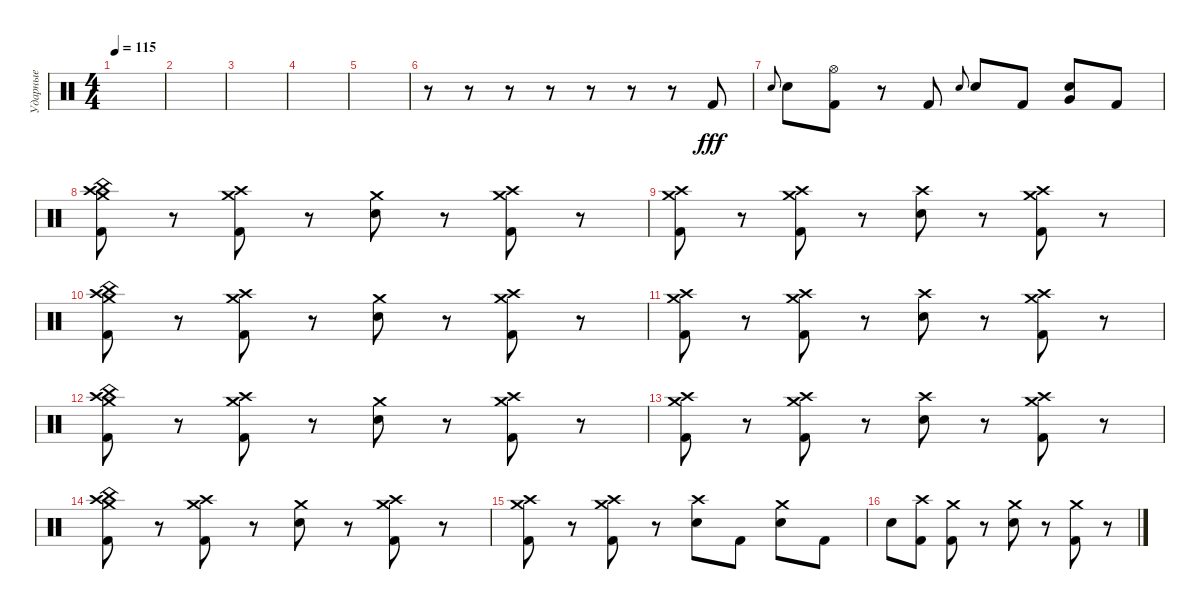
\track ("Ударные" "Ударные") {instrument percussion}
\staff {score}
\articulation defaults
\ts (4 4)
\tempo 115
\clef neutral
\ks c
|
|
|
|
|
r.8 r.8 r.8 r.8 r.8 r.8 r.8 "Kick (hit) 2".8{dy fff} |
"Snare (hit) 2".8{gr onbeat} "Snare (hit) 2".8 ("Hi-Hat (open)" "Kick (hit) 2").8 r.8 "Kick (hit) 2".8 "Snare (hit) 2".8{gr onbeat} "Snare (hit) 2".8 "Kick (hit) 2".8 ("Very Low Tom (hit)" "Snare (hit) 2").8 "Kick (hit) 2".8 |
("Crash high (hit)" "Crash medium (hit)" "China (hit)" "Kick (hit) 2").8 r.8 ("Crash high (hit)" "Crash medium (hit)" "Kick (hit) 2").8 r.8 ("Crash medium (hit)" "Snare (hit) 2").8 r.8 ("Crash high (hit)" "Crash medium (hit)" "Kick (hit) 2").8 r.8 |
("Crash high (hit)" "Crash medium (hit)" "Kick (hit) 2").8 r.8 ("Crash high (hit)" "Crash medium (hit)" "Kick (hit) 2").8 r.8 ("Crash high (hit)" "Snare (hit) 2").8 r.8 ("Crash high (hit)" "Crash medium (hit)" "Kick (hit) 2").8 r.8 |
("Crash high (hit)" "Crash medium (hit)" "China (hit)" "Kick (hit) 2").8 r.8 ("Crash high (hit)" "Crash medium (hit)" "Kick (hit) 2").8 r.8 ("Crash medium (hit)" "Snare (hit) 2").8 r.8 ("Crash high (hit)" "Crash medium (hit)" "Kick (hit) 2").8 r.8 |
("Crash high (hit)" "Crash medium (hit)" "Kick (hit) 2").8 r.8 ("Crash high (hit)" "Crash medium (hit)" "Kick (hit) 2").8 r.8 ("Crash high (hit)" "Snare (hit) 2").8 r.8 ("Crash high (hit)" "Crash medium (hit)" "Kick (hit) 2").8 r.8 |
("Crash high (hit)" "Crash medium (hit)" "China (hit)" "Kick (hit) 2").8 r.8 ("Crash high (hit)" "Crash medium (hit)" "Kick (hit) 2").8 r.8 ("Crash medium (hit)" "Snare (hit) 2").8 r.8 ("Crash high (hit)" "Crash medium (hit)" "Kick (hit) 2").8 r.8 |
("Crash high (hit)" "Crash medium (hit)" "Kick (hit) 2").8 r.8 ("Crash high (hit)" "Crash medium (hit)" "Kick (hit) 2").8 r.8 ("Crash high (hit)" "Snare (hit) 2").8 r.8 ("Crash high (hit)" "Crash medium (hit)" "Kick (hit) 2").8 r.8 |
("Crash high (hit)" "Crash medium (hit)" "China (hit)" "Kick (hit) 2").8 r.8 ("Crash high (hit)" "Crash medium (hit)" "Kick (hit) 2").8 r.8 ("Crash medium (hit)" "Snare (hit) 2").8 r.8 ("Crash high (hit)" "Crash medium (hit)" "Kick (hit) 2").8 r.8 |
("Crash high (hit)" "Crash medium (hit)" "Kick (hit) 2").8 r.8 ("Crash high (hit)" "Crash medium (hit)" "Kick (hit) 2").8 r.8 ("Crash high (hit)" "Snare (hit) 2").8 "Kick (hit) 2".8 ("Crash medium (hit)" "Snare (hit) 2").8 "Kick (hit) 2".8 |
"Snare (hit) 2".8 ("Crash high (hit)" "Kick (hit) 2").8 ("Crash medium (hit)" "Kick (hit) 2").8 r.8 ("Crash medium (hit)" "Snare (hit) 2").8 r.8 ("Crash medium (hit)" "Kick (hit) 2").8 r.8
